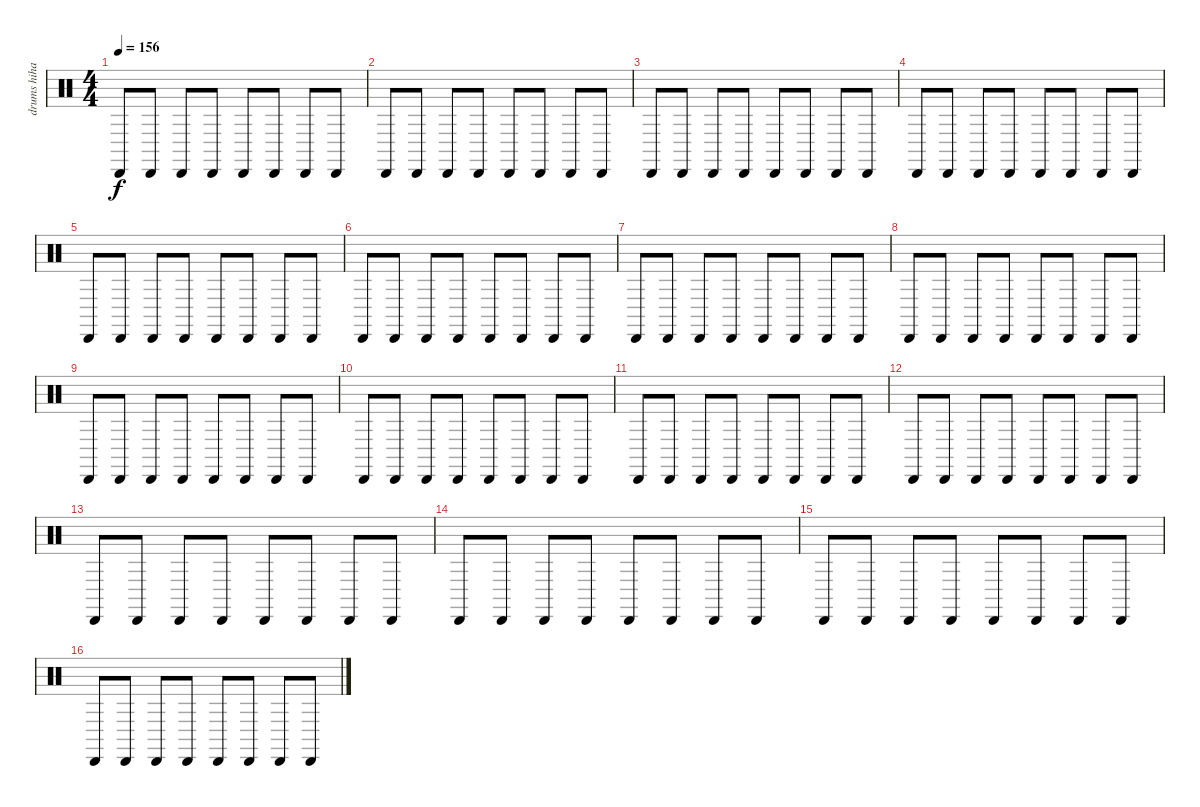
\track ("drums hihats" "drums hiha") {instrument percussion}
\staff {score}
\articulation defaults
\ts (4 4)
\tempo 156
\clef neutral
\ks c "Cabasa (hit)".8{dy f} "Cabasa (hit)".8 "Cabasa (hit)".8 "Cabasa (hit)".8 "Cabasa (hit)".8 "Cabasa (hit)".8 "Cabasa (hit)".8 "Cabasa (hit)".8
|
"Cabasa (hit)".8 "Cabasa (hit)".8 "Cabasa (hit)".8 "Cabasa (hit)".8 "Cabasa (hit)".8 "Cabasa (hit)".8 "Cabasa (hit)".8 "Cabasa (hit)".8 |
"Cabasa (hit)".8 "Cabasa (hit)".8 "Cabasa (hit)".8 "Cabasa (hit)".8 "Cabasa (hit)".8 "Cabasa (hit)".8 "Cabasa (hit)".8 "Cabasa (hit)".8 |
"Cabasa (hit)".8 "Cabasa (hit)".8 "Cabasa (hit)".8 "Cabasa (hit)".8 "Cabasa (hit)".8 "Cabasa (hit)".8 "Cabasa (hit)".8 "Cabasa (hit)".8 |
"Cabasa (hit)".8 "Cabasa (hit)".8 "Cabasa (hit)".8 "Cabasa (hit)".8 "Cabasa (hit)".8 "Cabasa (hit)".8 "Cabasa (hit)".8 "Cabasa (hit)".8 |
"Cabasa (hit)".8 "Cabasa (hit)".8 "Cabasa (hit)".8 "Cabasa (hit)".8 "Cabasa (hit)".8 "Cabasa (hit)".8 "Cabasa (hit)".8 "Cabasa (hit)".8 |
"Cabasa (hit)".8 "Cabasa (hit)".8 "Cabasa (hit)".8 "Cabasa (hit)".8 "Cabasa (hit)".8 "Cabasa (hit)".8 "Cabasa (hit)".8 "Cabasa (hit)".8 |
"Cabasa (hit)".8 "Cabasa (hit)".8 "Cabasa (hit)".8 "Cabasa (hit)".8 "Cabasa (hit)".8 "Cabasa (hit)".8 "Cabasa (hit)".8 "Cabasa (hit)".8 |
"Cabasa (hit)".8 "Cabasa (hit)".8 "Cabasa (hit)".8 "Cabasa (hit)".8 "Cabasa (hit)".8 "Cabasa (hit)".8 "Cabasa (hit)".8 "Cabasa (hit)".8 |
"Cabasa (hit)".8 "Cabasa (hit)".8 "Cabasa (hit)".8 "Cabasa (hit)".8 "Cabasa (hit)".8 "Cabasa (hit)".8 "Cabasa (hit)".8 "Cabasa (hit)".8 |
"Cabasa (hit)".8 "Cabasa (hit)".8 "Cabasa (hit)".8 "Cabasa (hit)".8 "Cabasa (hit)".8 "Cabasa (hit)".8 "Cabasa (hit)".8 "Cabasa (hit)".8 |
"Cabasa (hit)".8 "Cabasa (hit)".8 "Cabasa (hit)".8 "Cabasa (hit)".8 "Cabasa (hit)".8 "Cabasa (hit)".8 "Cabasa (hit)".8 "Cabasa (hit)".8 |
"Cabasa (hit)".8 "Cabasa (hit)".8 "Cabasa (hit)".8 "Cabasa (hit)".8 "Cabasa (hit)".8 "Cabasa (hit)".8 "Cabasa (hit)".8 "Cabasa (hit)".8 |
"Cabasa (hit)".8 "Cabasa (hit)".8 "Cabasa (hit)".8 "Cabasa (hit)".8 "Cabasa (hit)".8 "Cabasa (hit)".8 "Cabasa (hit)".8 "Cabasa (hit)".8 |
"Cabasa (hit)".8 "Cabasa (hit)".8 "Cabasa (hit)".8 "Cabasa (hit)".8 "Cabasa (hit)".8 "Cabasa (hit)".8 "Cabasa (hit)".8 "Cabasa (hit)".8 |
"Cabasa (hit)".8 "Cabasa (hit)".8 "Cabasa (hit)".8 "Cabasa (hit)".8 "Cabasa (hit)".8 "Cabasa (hit)".8 "Cabasa (hit)".8 "Cabasa (hit)".8
